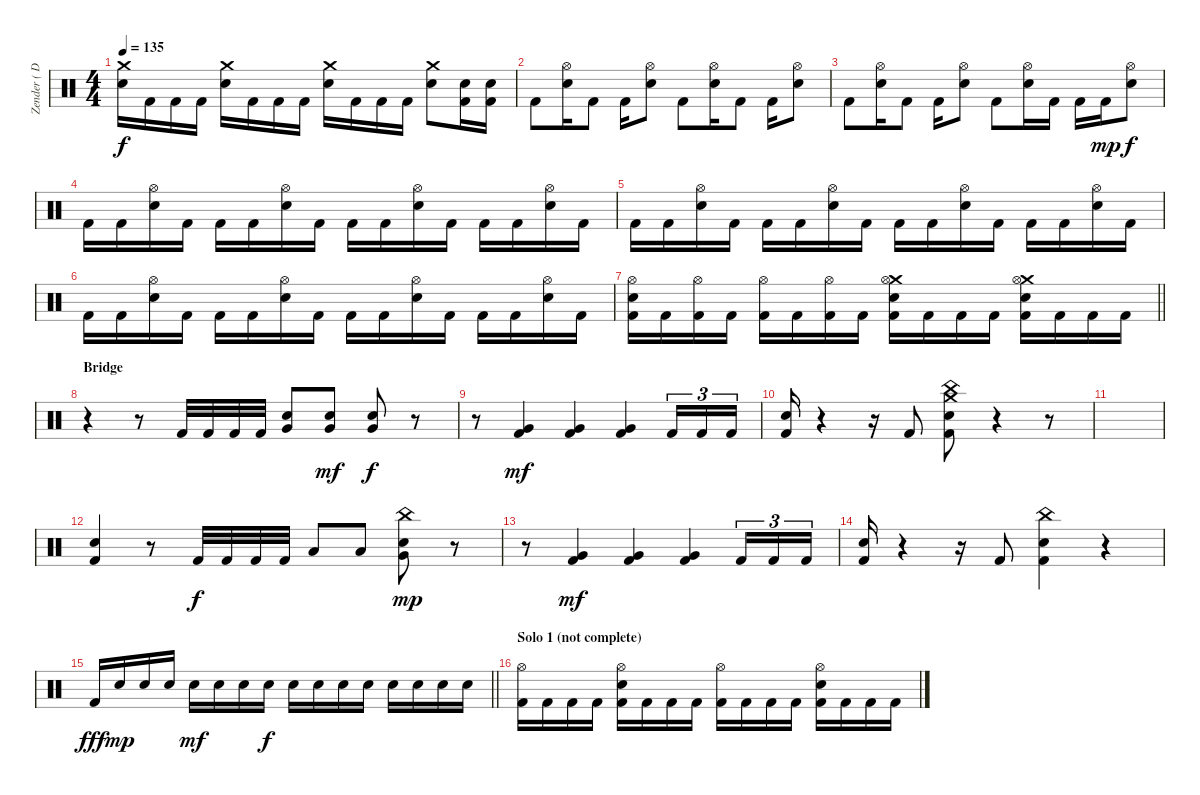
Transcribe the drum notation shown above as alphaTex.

\track ("Zender ( Drums )" "Zender ( D") {instrument percussion}
\staff {score}
\articulation defaults
\ts (4 4)
\tempo 135
\clef neutral
\ks c
("Crash medium (hit)" "Snare (hit) 2").16{dy f} "Kick (hit) 2".16 "Kick (hit) 2".16 "Kick (hit) 2".16 ("Crash medium (hit)" "Snare (hit) 2").16 "Kick (hit) 2".16 "Kick (hit) 2".16 "Kick (hit) 2".16 ("Crash medium (hit)" "Snare (hit) 2").16 "Kick (hit) 2".16 "Kick (hit) 2".16 "Kick (hit) 2".16 ("Crash medium (hit)" "Snare (hit) 2").8 ("Snare (hit) 2" "Kick (hit) 2").16 ("Snare (hit) 2" "Kick (hit) 2").16 |
"Kick (hit) 2".8 ("Hi-Hat (open)" "Snare (hit) 2").16 "Kick (hit) 2".8 "Kick (hit) 2".16 ("Hi-Hat (open)" "Snare (hit) 2").8 "Kick (hit) 2".8 ("Hi-Hat (open)" "Snare (hit) 2").16 "Kick (hit) 2".8 "Kick (hit) 2".16 ("Hi-Hat (open)" "Snare (hit) 2").8 |
"Kick (hit) 2".8 ("Hi-Hat (open)" "Snare (hit) 2").16 "Kick (hit) 2".8 "Kick (hit) 2".16 ("Hi-Hat (open)" "Snare (hit) 2").8 "Kick (hit) 2".8 ("Hi-Hat (open)" "Snare (hit) 2").16 "Kick (hit) 2".16 "Kick (hit) 2".16 "Kick (hit) 2".16{dy mp} ("Hi-Hat (open)" "Snare (hit) 2").8{dy f} |
"Kick (hit) 2".16 "Kick (hit) 2".16 ("Hi-Hat (open)" "Snare (hit) 2").16 "Kick (hit) 2".16 "Kick (hit) 2".16 "Kick (hit) 2".16 ("Hi-Hat (open)" "Snare (hit) 2").16 "Kick (hit) 2".16 "Kick (hit) 2".16 "Kick (hit) 2".16 ("Hi-Hat (open)" "Snare (hit) 2").16 "Kick (hit) 2".16 "Kick (hit) 2".16 "Kick (hit) 2".16 ("Hi-Hat (open)" "Snare (hit) 2").16 "Kick (hit) 2".16 |
"Kick (hit) 2".16 "Kick (hit) 2".16 ("Hi-Hat (open)" "Snare (hit) 2").16 "Kick (hit) 2".16 "Kick (hit) 2".16 "Kick (hit) 2".16 ("Hi-Hat (open)" "Snare (hit) 2").16 "Kick (hit) 2".16 "Kick (hit) 2".16 "Kick (hit) 2".16 ("Hi-Hat (open)" "Snare (hit) 2").16 "Kick (hit) 2".16 "Kick (hit) 2".16 "Kick (hit) 2".16 ("Hi-Hat (open)" "Snare (hit) 2").16 "Kick (hit) 2".16 |
"Kick (hit) 2".16 "Kick (hit) 2".16 ("Hi-Hat (open)" "Snare (hit) 2").16 "Kick (hit) 2".16 "Kick (hit) 2".16 "Kick (hit) 2".16 ("Hi-Hat (open)" "Snare (hit) 2").16 "Kick (hit) 2".16 "Kick (hit) 2".16 "Kick (hit) 2".16 ("Hi-Hat (open)" "Snare (hit) 2").16 "Kick (hit) 2".16 "Kick (hit) 2".16 "Kick (hit) 2".16 ("Hi-Hat (open)" "Snare (hit) 2").16 "Kick (hit) 2".16 |
\barLineRight lightlight
("Hi-Hat (open)" "Snare (hit) 2" "Kick (hit) 2").16 "Kick (hit) 2".16 ("Hi-Hat (open)" "Kick (hit) 2").16 "Kick (hit) 2".16 ("Hi-Hat (open)" "Kick (hit) 2").16 "Kick (hit) 2".16 ("Hi-Hat (open)" "Kick (hit) 2").16 "Kick (hit) 2".16 ("Crash medium (hit)" "Hi-Hat (open)" "Snare (hit) 2" "Kick (hit) 2").16 "Kick (hit) 2".16 "Kick (hit) 2".16 "Kick (hit) 2".16 ("Crash medium (hit)" "Hi-Hat (open)" "Snare (hit) 2" "Kick (hit) 2").16 "Kick (hit) 2".16 "Kick (hit) 2".16 "Kick (hit) 2".16 |
\section ("" "Bridge")
r.4 r.8 "Kick (hit) 2".32 "Kick (hit) 2".32 "Kick (hit) 2".32 "Kick (hit) 2".32 ("Very Low Tom (hit)" "Snare (hit) 2").8 ("Very Low Tom (hit)" "Snare (hit) 2").8{dy mf} ("Very Low Tom (hit)" "Snare (hit) 2").8{dy f} r.8 |
r.8 ("Very Low Tom (hit)" "Kick (hit) 2").4{dy mf} ("Very Low Tom (hit)" "Kick (hit) 2").4 ("Very Low Tom (hit)" "Kick (hit) 2").4 "Kick (hit) 2".16{tu (3 2)} "Kick (hit) 2".16{tu (3 2)} "Kick (hit) 2".16{tu (3 2)} |
("Snare (hit) 2" "Kick (hit) 2").16 r.4 r.16 "Kick (hit) 2".8 ("China (hit)" "Crash medium (hit)" "Snare (hit) 2" "Kick (hit) 2").8 r.4 r.8 |
|
("Snare (hit) 2" "Kick (hit) 2").4 r.8 "Kick (hit) 2".32{dy f} "Kick (hit) 2".32 "Kick (hit) 2".32 "Kick (hit) 2".32 "Low Floor Tom (hit)".8 "Low Floor Tom (hit)".8 ("China (hit)" "Very Low Tom (hit)" "Snare (hit) 2").8{dy mp} r.8 |
r.8 ("Very Low Tom (hit)" "Kick (hit) 2").4{dy mf} ("Very Low Tom (hit)" "Kick (hit) 2").4 ("Very Low Tom (hit)" "Kick (hit) 2").4 "Kick (hit) 2".16{tu (3 2)} "Kick (hit) 2".16{tu (3 2)} "Kick (hit) 2".16{tu (3 2)} |
("Snare (hit) 2" "Kick (hit) 2").16 r.4 r.16 "Kick (hit) 2".8 ("China (hit)" "Snare (hit) 2" "Kick (hit) 2").4 r.4 |
\barLineRight lightlight "Kick (hit) 2".16{dy fff} "Snare (hit) 2".16{dy mp} "Snare (hit) 2".16 "Snare (hit) 2".16 "Snare (hit) 2".16{dy mf} "Snare (hit) 2".16 "Snare (hit) 2".16 "Snare (hit) 2".16{dy f} "Snare (hit) 2".16 "Snare (hit) 2".16 "Snare (hit) 2".16 "Snare (hit) 2".16 "Snare (hit) 2".16 "Snare (hit) 2".16 "Snare (hit) 2".16 "Snare (hit) 2".16
|
\section ("" "Solo 1 (not complete)")
("Hi-Hat (open)" "Kick (hit) 2").16 "Kick (hit) 2".16 "Kick (hit) 2".16 "Kick (hit) 2".16 ("Hi-Hat (open)" "Snare (hit) 2" "Kick (hit) 2").16 "Kick (hit) 2".16 "Kick (hit) 2".16 "Kick (hit) 2".16 ("Hi-Hat (open)" "Kick (hit) 2").16 "Kick (hit) 2".16 "Kick (hit) 2".16 "Kick (hit) 2".16 ("Hi-Hat (open)" "Snare (hit) 2" "Kick (hit) 2").16 "Kick (hit) 2".16 "Kick (hit) 2".16 "Kick (hit) 2".16
